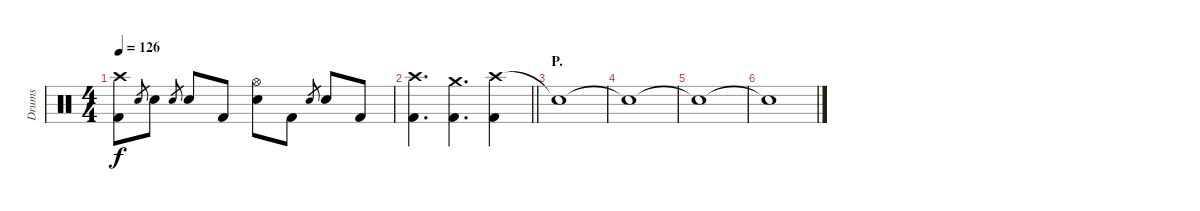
\track ("Drums" "Drums") {instrument percussion}
\staff {score}
\articulation defaults
\ts (4 4)
\tempo 126
\clef neutral
\ks c
("Crash high (hit)" "Kick (hit) 2").8{dy f} "Electric Snare (hit)".8{gr} "Electric Snare (hit)".8 "Electric Snare (hit)".8{gr} "Electric Snare (hit)".8 "Kick (hit) 2".8 ("Hi-Hat (open)" "Electric Snare (hit)").8 "Kick (hit) 2".8 "Electric Snare (hit)".8{gr} "Electric Snare (hit)".8 "Kick (hit) 2".8 |
\barLineRight lightlight
("Crash high (hit)" "Kick (hit) 2").4{d} ("Crash medium (hit)" "Kick (hit) 2").4{d} ("Crash high (hit)" "Kick (hit) 2").4 |
\section ("" "P.")
"Snare (hit)"{t}.1 |
"Snare (hit)"{t}.1 |
"Snare (hit)"{t}.1 |
"Snare (hit)"{t}.1
